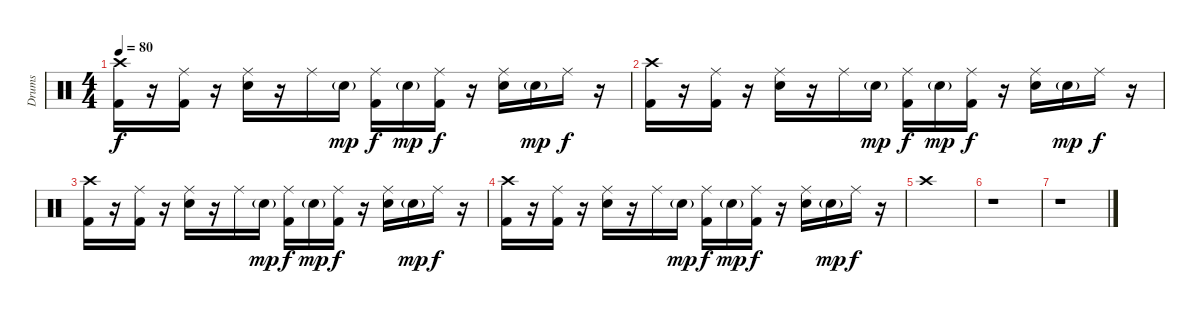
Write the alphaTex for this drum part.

\track ("Drums" "Drums") {instrument percussion}
\staff {score}
\articulation defaults
\ts (4 4)
\tempo 80
\clef neutral
\ks c
("Crash high (hit)" "Kick (hit) 2").16{dy f} r.16 ("Ride (middle)" "Kick (hit) 2").16 r.16 ("Ride (middle)" "Electric Snare (hit)").16 r.16 "Ride (middle)".16 "Electric Snare (hit)"{g}.16{dy mp} ("Ride (middle)" "Kick (hit) 2").16{dy f} "Electric Snare (hit)"{g}.16{dy mp} ("Ride (middle)" "Kick (hit) 2").16{dy f} r.16 ("Ride (middle)" "Electric Snare (hit)").16 "Electric Snare (hit)"{g}.16{dy mp} "Ride (middle)".16{dy f} r.16 |
("Crash high (hit)" "Kick (hit) 2").16 r.16 ("Ride (middle)" "Kick (hit) 2").16 r.16 ("Ride (middle)" "Electric Snare (hit)").16 r.16 "Ride (middle)".16 "Electric Snare (hit)"{g}.16{dy mp} ("Ride (middle)" "Kick (hit) 2").16{dy f} "Electric Snare (hit)"{g}.16{dy mp} ("Ride (middle)" "Kick (hit) 2").16{dy f} r.16 ("Ride (middle)" "Electric Snare (hit)").16 "Electric Snare (hit)"{g}.16{dy mp} "Ride (middle)".16{dy f} r.16 |
("Crash high (hit)" "Kick (hit) 2").16 r.16 ("Ride (middle)" "Kick (hit) 2").16 r.16 ("Ride (middle)" "Electric Snare (hit)").16 r.16 "Ride (middle)".16 "Electric Snare (hit)"{g}.16{dy mp} ("Ride (middle)" "Kick (hit) 2").16{dy f} "Electric Snare (hit)"{g}.16{dy mp} ("Ride (middle)" "Kick (hit) 2").16{dy f} r.16 ("Ride (middle)" "Electric Snare (hit)").16 "Electric Snare (hit)"{g}.16{dy mp} "Ride (middle)".16{dy f} r.16 |
("Crash high (hit)" "Kick (hit) 2").16 r.16 ("Ride (middle)" "Kick (hit) 2").16 r.16 ("Ride (middle)" "Electric Snare (hit)").16 r.16 "Ride (middle)".16 "Electric Snare (hit)"{g}.16{dy mp} ("Ride (middle)" "Kick (hit) 2").16{dy f} "Electric Snare (hit)"{g}.16{dy mp} ("Ride (middle)" "Kick (hit) 2").16{dy f} r.16 ("Ride (middle)" "Electric Snare (hit)").16 "Electric Snare (hit)"{g}.16{dy mp} "Ride (middle)".16{dy f} r.16 |
"Crash high (hit)".1 |
r.1 |
r.1
